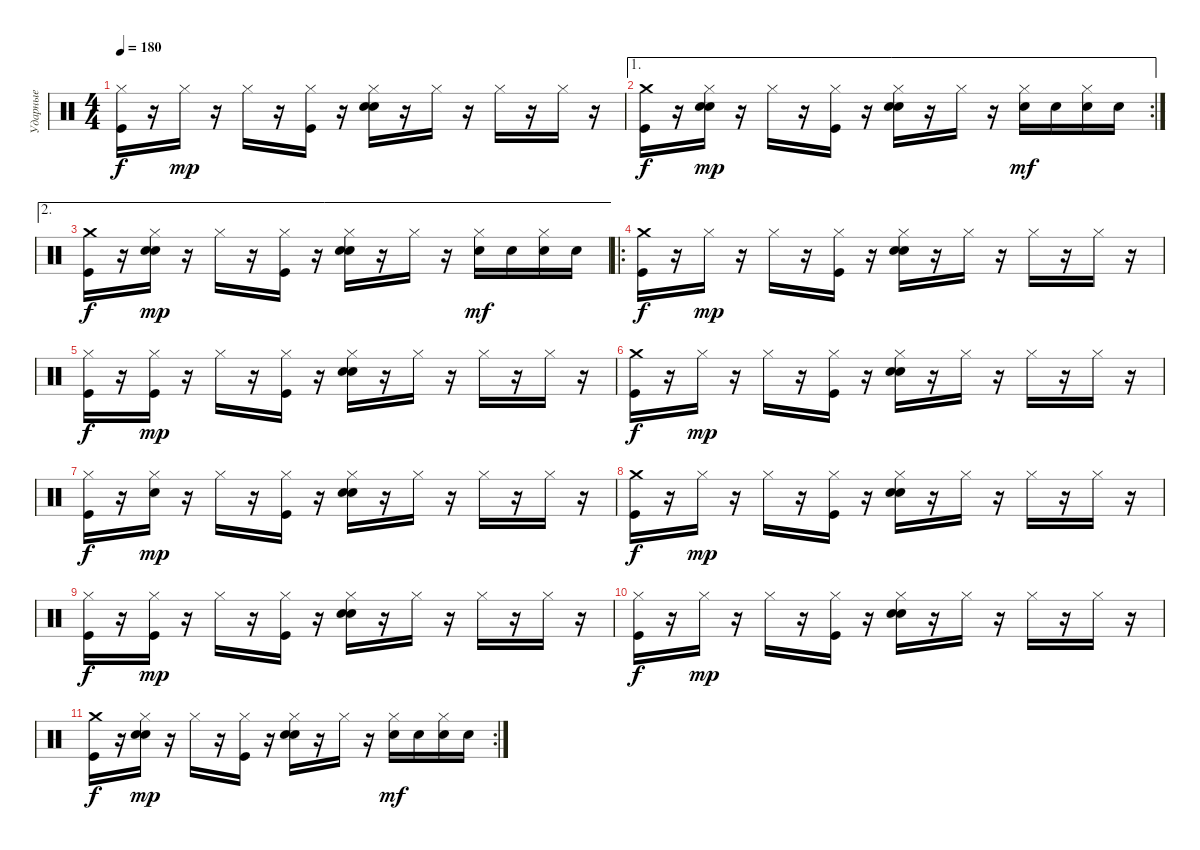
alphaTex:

\track ("Ударные" "Ударные") {instrument percussion}
\staff {score}
\articulation defaults
\ts (4 4)
\tempo 180
\clef neutral
\ks c
("Hi-Hat (closed)" "Kick (hit)").16{dy f} r.16 "Hi-Hat (closed)".16{dy mp} r.16 "Hi-Hat (closed)".16 r.16 ("Hi-Hat (closed)" "Kick (hit)").16 r.16 ("Hi-Hat (closed)" "Electric Snare (hit)" "Hand Clap (hit)").16 r.16 "Hi-Hat (closed)".16 r.16 "Hi-Hat (closed)".16 r.16 "Hi-Hat (closed)".16 r.16 |
\ae 1
\rc 2
("Crash medium (hit)" "Kick (hit)").16{dy f} r.16 ("Hi-Hat (closed)" "Electric Snare (hit)" "Hand Clap (hit)").16{dy mp} r.16 "Hi-Hat (closed)".16 r.16 ("Hi-Hat (closed)" "Kick (hit)").16 r.16 ("Hi-Hat (closed)" "Electric Snare (hit)" "Hand Clap (hit)").16 r.16 "Hi-Hat (closed)".16 r.16 ("Hi-Hat (closed)" "Electric Snare (hit)").16{dy mf} "Electric Snare (hit)".16 ("Hi-Hat (closed)" "Electric Snare (hit)").16 "Electric Snare (hit)".16 |
\ae 2
("Crash medium (hit)" "Kick (hit)").16{dy f} r.16 ("Hi-Hat (closed)" "Electric Snare (hit)" "Hand Clap (hit)").16{dy mp} r.16 "Hi-Hat (closed)".16 r.16 ("Hi-Hat (closed)" "Kick (hit)").16 r.16 ("Hi-Hat (closed)" "Electric Snare (hit)" "Hand Clap (hit)").16 r.16 "Hi-Hat (closed)".16 r.16 ("Hi-Hat (closed)" "Electric Snare (hit)").16{dy mf} "Electric Snare (hit)".16 ("Hi-Hat (closed)" "Electric Snare (hit)").16 "Electric Snare (hit)".16 |
\ro
("Crash medium (hit)" "Kick (hit)").16{dy f} r.16 "Hi-Hat (closed)".16{dy mp} r.16 "Hi-Hat (closed)".16 r.16 ("Hi-Hat (closed)" "Kick (hit)").16 r.16 ("Hi-Hat (closed)" "Electric Snare (hit)" "Hand Clap (hit)").16 r.16 "Hi-Hat (closed)".16 r.16 "Hi-Hat (closed)".16 r.16 "Hi-Hat (closed)".16 r.16 |
("Hi-Hat (closed)" "Kick (hit)").16{dy f} r.16 ("Hi-Hat (closed)" "Kick (hit)").16{dy mp} r.16 "Hi-Hat (closed)".16 r.16 ("Hi-Hat (closed)" "Kick (hit)").16 r.16 ("Hi-Hat (closed)" "Electric Snare (hit)" "Hand Clap (hit)").16 r.16 "Hi-Hat (closed)".16 r.16 "Hi-Hat (closed)".16 r.16 "Hi-Hat (closed)".16 r.16 |
("Crash medium (hit)" "Kick (hit)").16{dy f} r.16 "Hi-Hat (closed)".16{dy mp} r.16 "Hi-Hat (closed)".16 r.16 ("Hi-Hat (closed)" "Kick (hit)").16 r.16 ("Hi-Hat (closed)" "Electric Snare (hit)" "Hand Clap (hit)").16 r.16 "Hi-Hat (closed)".16 r.16 "Hi-Hat (closed)".16 r.16 "Hi-Hat (closed)".16 r.16 |
("Hi-Hat (closed)" "Kick (hit)").16{dy f} r.16 ("Hi-Hat (closed)" "Electric Snare (hit)").16{dy mp} r.16 "Hi-Hat (closed)".16 r.16 ("Hi-Hat (closed)" "Kick (hit)").16 r.16 ("Hi-Hat (closed)" "Electric Snare (hit)" "Hand Clap (hit)").16 r.16 "Hi-Hat (closed)".16 r.16 "Hi-Hat (closed)".16 r.16 "Hi-Hat (closed)".16 r.16 |
("Crash medium (hit)" "Kick (hit)").16{dy f} r.16 "Hi-Hat (closed)".16{dy mp} r.16 "Hi-Hat (closed)".16 r.16 ("Hi-Hat (closed)" "Kick (hit)").16 r.16 ("Hi-Hat (closed)" "Electric Snare (hit)" "Hand Clap (hit)").16 r.16 "Hi-Hat (closed)".16 r.16 "Hi-Hat (closed)".16 r.16 "Hi-Hat (closed)".16 r.16 |
("Hi-Hat (closed)" "Kick (hit)").16{dy f} r.16 ("Hi-Hat (closed)" "Kick (hit)").16{dy mp} r.16 "Hi-Hat (closed)".16 r.16 ("Hi-Hat (closed)" "Kick (hit)").16 r.16 ("Hi-Hat (closed)" "Electric Snare (hit)" "Hand Clap (hit)").16 r.16 "Hi-Hat (closed)".16 r.16 "Hi-Hat (closed)".16 r.16 "Hi-Hat (closed)".16 r.16 |
("Hi-Hat (closed)" "Kick (hit)").16{dy f} r.16 "Hi-Hat (closed)".16{dy mp} r.16 "Hi-Hat (closed)".16 r.16 ("Hi-Hat (closed)" "Kick (hit)").16 r.16 ("Hi-Hat (closed)" "Electric Snare (hit)" "Hand Clap (hit)").16 r.16 "Hi-Hat (closed)".16 r.16 "Hi-Hat (closed)".16 r.16 "Hi-Hat (closed)".16 r.16 |
\rc 2
("Crash medium (hit)" "Kick (hit)").16{dy f} r.16 ("Hi-Hat (closed)" "Electric Snare (hit)" "Hand Clap (hit)").16{dy mp} r.16 "Hi-Hat (closed)".16 r.16 ("Hi-Hat (closed)" "Kick (hit)").16 r.16 ("Hi-Hat (closed)" "Electric Snare (hit)" "Hand Clap (hit)").16 r.16 "Hi-Hat (closed)".16 r.16 ("Hi-Hat (closed)" "Electric Snare (hit)").16{dy mf} "Electric Snare (hit)".16 ("Hi-Hat (closed)" "Electric Snare (hit)").16 "Electric Snare (hit)".16
